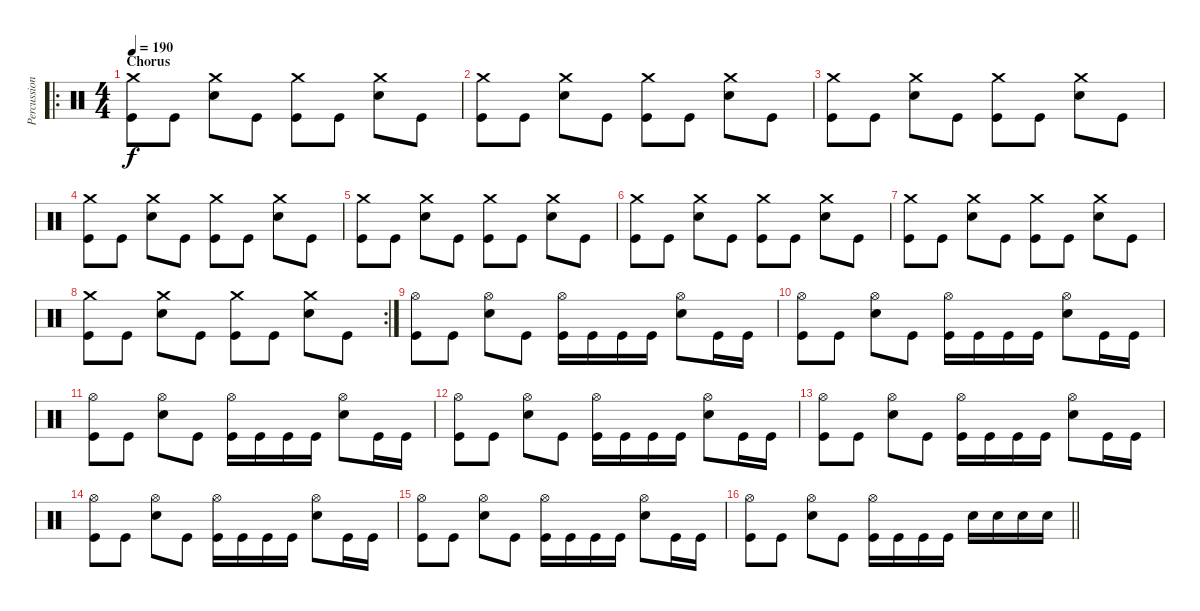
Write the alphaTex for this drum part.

\track ("Percussion" "Percussion") {instrument percussion}
\staff {score}
\articulation defaults
\ro
\ts (4 4)
\section ("" "Chorus")
\tempo 190
\clef neutral
\ks c
("Crash medium (hit)" "Kick (hit)").8{dy f} "Kick (hit)".8 ("Crash medium (hit)" "Snare (hit) 2").8 "Kick (hit)".8 ("Crash medium (hit)" "Kick (hit)").8 "Kick (hit)".8 ("Crash medium (hit)" "Snare (hit) 2").8 "Kick (hit)".8 |
("Crash medium (hit)" "Kick (hit)").8 "Kick (hit)".8 ("Crash medium (hit)" "Snare (hit) 2").8 "Kick (hit)".8 ("Crash medium (hit)" "Kick (hit)").8 "Kick (hit)".8 ("Crash medium (hit)" "Snare (hit) 2").8 "Kick (hit)".8 |
("Crash medium (hit)" "Kick (hit)").8 "Kick (hit)".8 ("Crash medium (hit)" "Snare (hit) 2").8 "Kick (hit)".8 ("Crash medium (hit)" "Kick (hit)").8 "Kick (hit)".8 ("Crash medium (hit)" "Snare (hit) 2").8 "Kick (hit)".8 |
("Crash medium (hit)" "Kick (hit)").8 "Kick (hit)".8 ("Crash medium (hit)" "Snare (hit) 2").8 "Kick (hit)".8 ("Crash medium (hit)" "Kick (hit)").8 "Kick (hit)".8 ("Crash medium (hit)" "Snare (hit) 2").8 "Kick (hit)".8 |
("Crash medium (hit)" "Kick (hit)").8 "Kick (hit)".8 ("Crash medium (hit)" "Snare (hit) 2").8 "Kick (hit)".8 ("Crash medium (hit)" "Kick (hit)").8 "Kick (hit)".8 ("Crash medium (hit)" "Snare (hit) 2").8 "Kick (hit)".8 |
("Crash medium (hit)" "Kick (hit)").8 "Kick (hit)".8 ("Crash medium (hit)" "Snare (hit) 2").8 "Kick (hit)".8 ("Crash medium (hit)" "Kick (hit)").8 "Kick (hit)".8 ("Crash medium (hit)" "Snare (hit) 2").8 "Kick (hit)".8 |
("Crash medium (hit)" "Kick (hit)").8 "Kick (hit)".8 ("Crash medium (hit)" "Snare (hit) 2").8 "Kick (hit)".8 ("Crash medium (hit)" "Kick (hit)").8 "Kick (hit)".8 ("Crash medium (hit)" "Snare (hit) 2").8 "Kick (hit)".8 |
\rc 2
("Crash medium (hit)" "Kick (hit)").8 "Kick (hit)".8 ("Crash medium (hit)" "Snare (hit) 2").8 "Kick (hit)".8 ("Crash medium (hit)" "Kick (hit)").8 "Kick (hit)".8 ("Crash medium (hit)" "Snare (hit) 2").8 "Kick (hit)".8 |
("Hi-Hat (open)" "Kick (hit)").8 "Kick (hit)".8 ("Hi-Hat (open)" "Snare (hit) 2").8 "Kick (hit)".8 ("Hi-Hat (open)" "Kick (hit)").16 "Kick (hit)".16 "Kick (hit)".16 "Kick (hit)".16 ("Hi-Hat (open)" "Snare (hit) 2").8 "Kick (hit)".16 "Kick (hit)".16 |
("Hi-Hat (open)" "Kick (hit)").8 "Kick (hit)".8 ("Hi-Hat (open)" "Snare (hit) 2").8 "Kick (hit)".8 ("Hi-Hat (open)" "Kick (hit)").16 "Kick (hit)".16 "Kick (hit)".16 "Kick (hit)".16 ("Hi-Hat (open)" "Snare (hit) 2").8 "Kick (hit)".16 "Kick (hit)".16 |
("Hi-Hat (open)" "Kick (hit)").8 "Kick (hit)".8 ("Hi-Hat (open)" "Snare (hit) 2").8 "Kick (hit)".8 ("Hi-Hat (open)" "Kick (hit)").16 "Kick (hit)".16 "Kick (hit)".16 "Kick (hit)".16 ("Hi-Hat (open)" "Snare (hit) 2").8 "Kick (hit)".16 "Kick (hit)".16 |
("Hi-Hat (open)" "Kick (hit)").8 "Kick (hit)".8 ("Hi-Hat (open)" "Snare (hit) 2").8 "Kick (hit)".8 ("Hi-Hat (open)" "Kick (hit)").16 "Kick (hit)".16 "Kick (hit)".16 "Kick (hit)".16 ("Hi-Hat (open)" "Snare (hit) 2").8 "Kick (hit)".16 "Kick (hit)".16 |
("Hi-Hat (open)" "Kick (hit)").8 "Kick (hit)".8 ("Hi-Hat (open)" "Snare (hit) 2").8 "Kick (hit)".8 ("Hi-Hat (open)" "Kick (hit)").16 "Kick (hit)".16 "Kick (hit)".16 "Kick (hit)".16 ("Hi-Hat (open)" "Snare (hit) 2").8 "Kick (hit)".16 "Kick (hit)".16 |
("Hi-Hat (open)" "Kick (hit)").8 "Kick (hit)".8 ("Hi-Hat (open)" "Snare (hit) 2").8 "Kick (hit)".8 ("Hi-Hat (open)" "Kick (hit)").16 "Kick (hit)".16 "Kick (hit)".16 "Kick (hit)".16 ("Hi-Hat (open)" "Snare (hit) 2").8 "Kick (hit)".16 "Kick (hit)".16 |
("Hi-Hat (open)" "Kick (hit)").8 "Kick (hit)".8 ("Hi-Hat (open)" "Snare (hit) 2").8 "Kick (hit)".8 ("Hi-Hat (open)" "Kick (hit)").16 "Kick (hit)".16 "Kick (hit)".16 "Kick (hit)".16 ("Hi-Hat (open)" "Snare (hit) 2").8 "Kick (hit)".16 "Kick (hit)".16 |
\barLineRight lightlight
("Hi-Hat (open)" "Kick (hit)").8 "Kick (hit)".8 ("Hi-Hat (open)" "Snare (hit) 2").8 "Kick (hit)".8 ("Hi-Hat (open)" "Kick (hit)").16 "Kick (hit)".16 "Kick (hit)".16 "Kick (hit)".16 "Snare (hit) 2".16 "Snare (hit) 2".16 "Snare (hit) 2".16 "Snare (hit) 2".16
